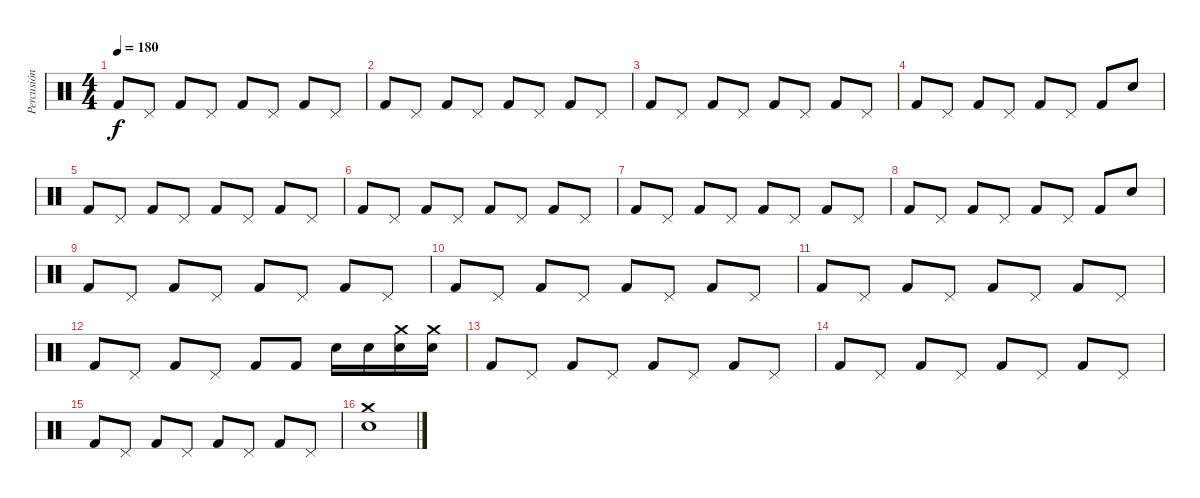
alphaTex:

\track ("Percusión" "Percusión") {instrument percussion}
\staff {score}
\articulation defaults
\ts (4 4)
\tempo 180
\clef neutral
\ks c "Kick (hit) 2".8{dy f} "Pedal Hi-Hat (hit)".8 "Kick (hit) 2".8 "Pedal Hi-Hat (hit)".8 "Kick (hit) 2".8 "Pedal Hi-Hat (hit)".8 "Kick (hit) 2".8 "Pedal Hi-Hat (hit)".8
|
"Kick (hit) 2".8 "Pedal Hi-Hat (hit)".8 "Kick (hit) 2".8 "Pedal Hi-Hat (hit)".8 "Kick (hit) 2".8 "Pedal Hi-Hat (hit)".8 "Kick (hit) 2".8 "Pedal Hi-Hat (hit)".8 |
"Kick (hit) 2".8 "Pedal Hi-Hat (hit)".8 "Kick (hit) 2".8 "Pedal Hi-Hat (hit)".8 "Kick (hit) 2".8 "Pedal Hi-Hat (hit)".8 "Kick (hit) 2".8 "Pedal Hi-Hat (hit)".8 |
"Kick (hit) 2".8 "Pedal Hi-Hat (hit)".8 "Kick (hit) 2".8 "Pedal Hi-Hat (hit)".8 "Kick (hit) 2".8 "Pedal Hi-Hat (hit)".8 "Kick (hit) 2".8 "Snare (hit) 2".8 |
"Kick (hit) 2".8 "Pedal Hi-Hat (hit)".8 "Kick (hit) 2".8 "Pedal Hi-Hat (hit)".8 "Kick (hit) 2".8 "Pedal Hi-Hat (hit)".8 "Kick (hit) 2".8 "Pedal Hi-Hat (hit)".8 |
"Kick (hit) 2".8 "Pedal Hi-Hat (hit)".8 "Kick (hit) 2".8 "Pedal Hi-Hat (hit)".8 "Kick (hit) 2".8 "Pedal Hi-Hat (hit)".8 "Kick (hit) 2".8 "Pedal Hi-Hat (hit)".8 |
"Kick (hit) 2".8 "Pedal Hi-Hat (hit)".8 "Kick (hit) 2".8 "Pedal Hi-Hat (hit)".8 "Kick (hit) 2".8 "Pedal Hi-Hat (hit)".8 "Kick (hit) 2".8 "Pedal Hi-Hat (hit)".8 |
"Kick (hit) 2".8 "Pedal Hi-Hat (hit)".8 "Kick (hit) 2".8 "Pedal Hi-Hat (hit)".8 "Kick (hit) 2".8 "Pedal Hi-Hat (hit)".8 "Kick (hit) 2".8 "Snare (hit) 2".8 |
"Kick (hit) 2".8 "Pedal Hi-Hat (hit)".8 "Kick (hit) 2".8 "Pedal Hi-Hat (hit)".8 "Kick (hit) 2".8 "Pedal Hi-Hat (hit)".8 "Kick (hit) 2".8 "Pedal Hi-Hat (hit)".8 |
"Kick (hit) 2".8 "Pedal Hi-Hat (hit)".8 "Kick (hit) 2".8 "Pedal Hi-Hat (hit)".8 "Kick (hit) 2".8 "Pedal Hi-Hat (hit)".8 "Kick (hit) 2".8 "Pedal Hi-Hat (hit)".8 |
"Kick (hit) 2".8 "Pedal Hi-Hat (hit)".8 "Kick (hit) 2".8 "Pedal Hi-Hat (hit)".8 "Kick (hit) 2".8 "Pedal Hi-Hat (hit)".8 "Kick (hit) 2".8 "Pedal Hi-Hat (hit)".8 |
"Kick (hit) 2".8 "Pedal Hi-Hat (hit)".8 "Kick (hit) 2".8 "Pedal Hi-Hat (hit)".8 "Kick (hit) 2".8 "Kick (hit) 2".8 "Snare (hit) 2".16 "Snare (hit) 2".16 ("Snare (hit) 2" "Crash medium (hit)").16 ("Snare (hit) 2" "Crash medium (hit)").16 |
"Kick (hit) 2".8 "Pedal Hi-Hat (hit)".8 "Kick (hit) 2".8 "Pedal Hi-Hat (hit)".8 "Kick (hit) 2".8 "Pedal Hi-Hat (hit)".8 "Kick (hit) 2".8 "Pedal Hi-Hat (hit)".8 |
"Kick (hit) 2".8 "Pedal Hi-Hat (hit)".8 "Kick (hit) 2".8 "Pedal Hi-Hat (hit)".8 "Kick (hit) 2".8 "Pedal Hi-Hat (hit)".8 "Kick (hit) 2".8 "Pedal Hi-Hat (hit)".8 |
"Kick (hit) 2".8 "Pedal Hi-Hat (hit)".8 "Kick (hit) 2".8 "Pedal Hi-Hat (hit)".8 "Kick (hit) 2".8 "Pedal Hi-Hat (hit)".8 "Kick (hit) 2".8 "Pedal Hi-Hat (hit)".8 |
("Snare (hit) 2" "Crash medium (hit)").1
